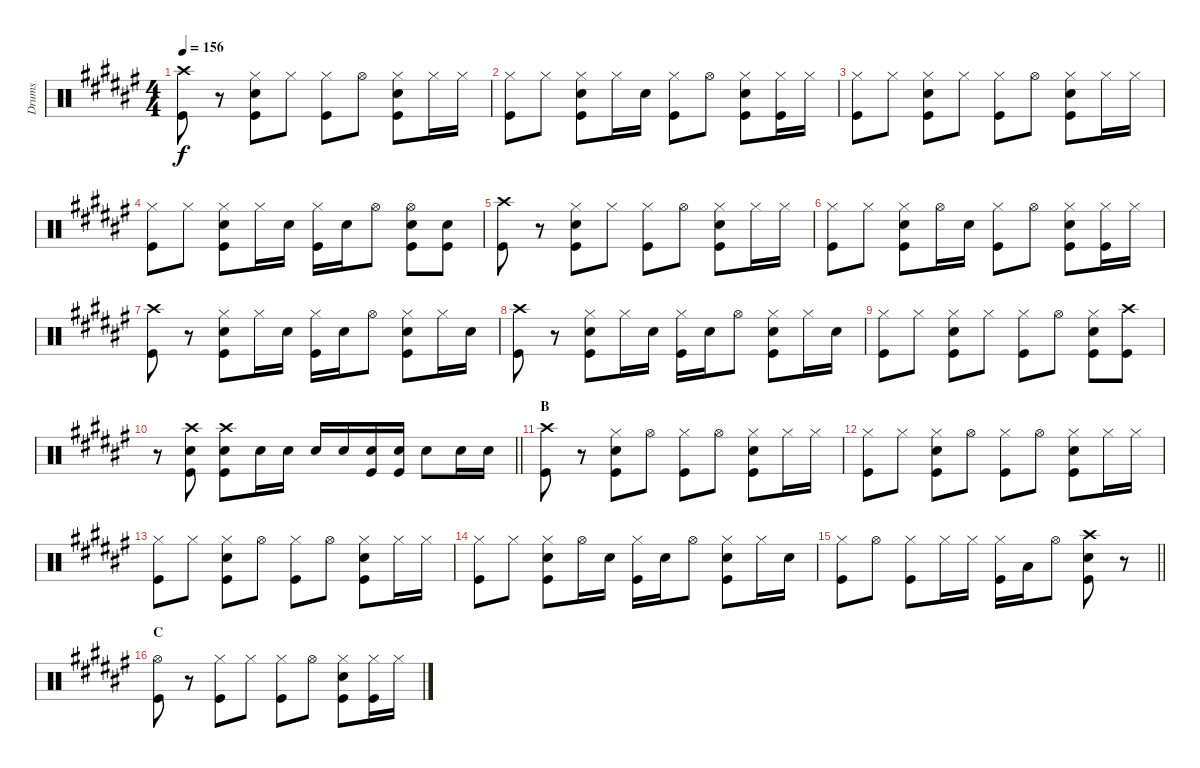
\track ("Drums" "Drums") {instrument percussion}
\staff {score}
\articulation defaults
\ts (4 4)
\tempo 156
\clef neutral
\ks f#
("Crash high (hit)" "Kick (hit)").8{dy f} r.8 ("Hi-Hat (closed)" "Snare (hit) 2" "Kick (hit)").8 "Hi-Hat (closed)".8 ("Hi-Hat (closed)" "Kick (hit)").8 "Hi-Hat (open)".8 ("Hi-Hat (closed)" "Snare (hit) 2" "Kick (hit)").8 "Hi-Hat (closed)".16 "Hi-Hat (closed)".16 |
("Hi-Hat (closed)" "Kick (hit)").8 "Hi-Hat (closed)".8 ("Hi-Hat (closed)" "Snare (hit) 2" "Kick (hit)").8 "Hi-Hat (closed)".16 "Snare (hit) 2".16 ("Hi-Hat (closed)" "Kick (hit)").8 "Hi-Hat (open)".8 ("Hi-Hat (closed)" "Snare (hit) 2" "Kick (hit)").8 ("Hi-Hat (closed)" "Kick (hit)").16 "Hi-Hat (closed)".16 |
("Hi-Hat (closed)" "Kick (hit)").8 "Hi-Hat (closed)".8 ("Hi-Hat (closed)" "Snare (hit) 2" "Kick (hit)").8 "Hi-Hat (closed)".8 ("Hi-Hat (closed)" "Kick (hit)").8 "Hi-Hat (open)".8 ("Hi-Hat (closed)" "Snare (hit) 2" "Kick (hit)").8 "Hi-Hat (closed)".16 "Hi-Hat (closed)".16 |
("Hi-Hat (closed)" "Kick (hit)").8 "Hi-Hat (closed)".8 ("Hi-Hat (closed)" "Snare (hit) 2" "Kick (hit)").8 "Hi-Hat (closed)".16 "Snare (hit) 2".16 ("Hi-Hat (closed)" "Kick (hit)").16 "Snare (hit) 2".16 "Hi-Hat (open)".8 ("Hi-Hat (open)" "Snare (hit) 2" "Kick (hit)").8 ("Snare (hit) 2" "Kick (hit)").8 |
("Crash high (hit)" "Kick (hit)").8 r.8 ("Hi-Hat (closed)" "Snare (hit) 2" "Kick (hit)").8 "Hi-Hat (closed)".8 ("Hi-Hat (closed)" "Kick (hit)").8 "Hi-Hat (open)".8 ("Hi-Hat (closed)" "Snare (hit) 2" "Kick (hit)").8 "Hi-Hat (closed)".16 "Hi-Hat (closed)".16 |
("Hi-Hat (closed)" "Kick (hit)").8 "Hi-Hat (closed)".8 ("Hi-Hat (closed)" "Snare (hit) 2" "Kick (hit)").8 "Hi-Hat (open)".16 "Snare (hit) 2".16 ("Hi-Hat (closed)" "Kick (hit)").8 "Hi-Hat (open)".8 ("Hi-Hat (closed)" "Snare (hit) 2" "Kick (hit)").8 ("Hi-Hat (closed)" "Kick (hit)").16 "Hi-Hat (closed)".16 |
("Crash high (hit)" "Kick (hit)").8 r.8 ("Hi-Hat (closed)" "Snare (hit) 2" "Kick (hit)").8 "Hi-Hat (closed)".16 "Snare (hit) 2".16 ("Hi-Hat (closed)" "Kick (hit)").16 "Snare (hit) 2".16 "Hi-Hat (open)".8 ("Hi-Hat (closed)" "Snare (hit) 2" "Kick (hit)").8 "Hi-Hat (closed)".16 "Snare (hit) 2".16 |
("Crash high (hit)" "Kick (hit)").8 r.8 ("Hi-Hat (closed)" "Snare (hit) 2" "Kick (hit)").8 "Hi-Hat (closed)".16 "Snare (hit) 2".16 ("Hi-Hat (closed)" "Kick (hit)").16 "Snare (hit) 2".16 "Hi-Hat (open)".8 ("Hi-Hat (closed)" "Snare (hit) 2" "Kick (hit)").8 "Hi-Hat (closed)".16 "Snare (hit) 2".16 |
("Hi-Hat (closed)" "Kick (hit)").8 "Hi-Hat (closed)".8 ("Hi-Hat (closed)" "Snare (hit) 2" "Kick (hit)").8 "Hi-Hat (closed)".8 ("Hi-Hat (closed)" "Kick (hit)").8 "Hi-Hat (open)".8 ("Hi-Hat (closed)" "Snare (hit) 2" "Kick (hit)").8 ("Crash high (hit)" "Kick (hit)").8 |
\barLineRight lightlight
r.8 ("Crash high (hit)" "Snare (hit) 2" "Kick (hit)").8 ("Crash high (hit)" "Snare (hit) 2" "Kick (hit)").8 "Snare (hit) 2".16 "Snare (hit) 2".16 "Snare (hit) 2".16 "Snare (hit) 2".16 ("Snare (hit) 2" "Kick (hit)").16 ("Snare (hit) 2" "Kick (hit)").16 "Snare (hit) 2".8 "Snare (hit) 2".16 "Snare (hit) 2".16 |
\section ("" "B")
("Crash high (hit)" "Kick (hit)").8 r.8 ("Hi-Hat (closed)" "Snare (hit) 2" "Kick (hit)").8 "Hi-Hat (open)".8 ("Hi-Hat (closed)" "Kick (hit)").8 "Hi-Hat (open)".8 ("Hi-Hat (closed)" "Snare (hit) 2" "Kick (hit)").8 "Hi-Hat (closed)".16 "Hi-Hat (closed)".16 |
("Hi-Hat (closed)" "Kick (hit)").8 "Hi-Hat (closed)".8 ("Hi-Hat (closed)" "Snare (hit) 2" "Kick (hit)").8 "Hi-Hat (open)".8 ("Hi-Hat (closed)" "Kick (hit)").8 "Hi-Hat (open)".8 ("Hi-Hat (closed)" "Snare (hit) 2" "Kick (hit)").8 "Hi-Hat (closed)".16 "Hi-Hat (closed)".16 |
("Hi-Hat (closed)" "Kick (hit)").8 "Hi-Hat (closed)".8 ("Hi-Hat (closed)" "Snare (hit) 2" "Kick (hit)").8 "Hi-Hat (open)".8 ("Hi-Hat (closed)" "Kick (hit)").8 "Hi-Hat (open)".8 ("Hi-Hat (closed)" "Snare (hit) 2" "Kick (hit)").8 "Hi-Hat (closed)".16 "Hi-Hat (closed)".16 |
("Hi-Hat (closed)" "Kick (hit)").8 "Hi-Hat (closed)".8 ("Hi-Hat (closed)" "Snare (hit) 2" "Kick (hit)").8 "Hi-Hat (open)".16 "Snare (hit) 2".16 ("Hi-Hat (closed)" "Kick (hit)").16 "Snare (hit) 2".16 "Hi-Hat (open)".8 ("Hi-Hat (closed)" "Snare (hit) 2" "Kick (hit)").8 "Hi-Hat (closed)".16 "Snare (hit) 2".16 |
\barLineRight lightlight
("Hi-Hat (closed)" "Kick (hit)").8 "Hi-Hat (open)".8 ("Hi-Hat (closed)" "Kick (hit)").8 "Hi-Hat (closed)".16 "Hi-Hat (closed)".16 ("Hi-Hat (closed)" "Kick (hit)").16 "Low Tom (hit)".16 "Hi-Hat (open)".8 ("Crash high (hit)" "Snare (hit) 2" "Kick (hit)").8 r.8 |
\section ("" "C")
("Hi-Hat (open)" "Kick (hit)").8 r.8 ("Hi-Hat (closed)" "Kick (hit)").8 "Hi-Hat (closed)".8 ("Hi-Hat (closed)" "Kick (hit)").8 "Hi-Hat (open)".8 ("Hi-Hat (closed)" "Snare (hit) 2" "Kick (hit)").8 ("Hi-Hat (closed)" "Kick (hit)").16 "Hi-Hat (closed)".16
